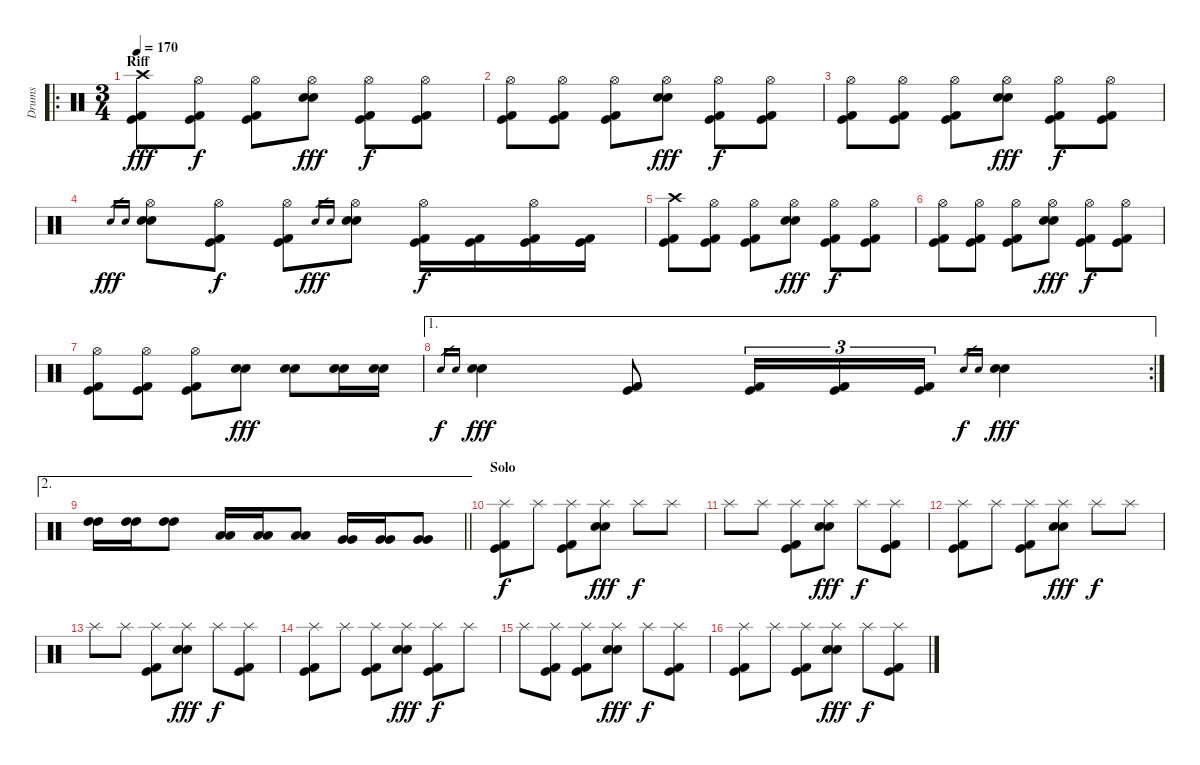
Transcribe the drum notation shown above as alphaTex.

\track ("Drums" "Drums") {instrument percussion}
\staff {score}
\articulation defaults
\ro
\ts (3 4)
\section ("" "Riff")
\tempo 170
\clef neutral
\ks c
("Crash high (hit)" "Kick (hit)" "Kick (hit) 2").8{dy fff} ("Hi-Hat (open)" "Kick (hit)" "Kick (hit) 2").8{dy f} ("Hi-Hat (open)" "Kick (hit)" "Kick (hit) 2").8 ("Hi-Hat (open)" "Electric Snare (hit)" "Electric Snare (hit)").8{dy fff} ("Hi-Hat (open)" "Kick (hit)" "Kick (hit) 2").8{dy f} ("Hi-Hat (open)" "Kick (hit)" "Kick (hit) 2").8 |
("Hi-Hat (open)" "Kick (hit)" "Kick (hit) 2").8 ("Hi-Hat (open)" "Kick (hit)" "Kick (hit) 2").8 ("Hi-Hat (open)" "Kick (hit)" "Kick (hit) 2").8 ("Hi-Hat (open)" "Electric Snare (hit)" "Electric Snare (hit)").8{dy fff} ("Hi-Hat (open)" "Kick (hit)" "Kick (hit) 2").8{dy f} ("Hi-Hat (open)" "Kick (hit)" "Kick (hit) 2").8 |
("Hi-Hat (open)" "Kick (hit)" "Kick (hit) 2").8 ("Hi-Hat (open)" "Kick (hit)" "Kick (hit) 2").8 ("Hi-Hat (open)" "Kick (hit)" "Kick (hit) 2").8 ("Hi-Hat (open)" "Electric Snare (hit)" "Electric Snare (hit)").8{dy fff} ("Hi-Hat (open)" "Kick (hit)" "Kick (hit) 2").8{dy f} ("Hi-Hat (open)" "Kick (hit)" "Kick (hit) 2").8 |
"Electric Snare (hit)".16{gr dy fff} "Electric Snare (hit)".16{gr} ("Hi-Hat (open)" "Electric Snare (hit)" "Electric Snare (hit)").8 ("Hi-Hat (open)" "Kick (hit)" "Kick (hit) 2").8{dy f} ("Hi-Hat (open)" "Kick (hit)" "Kick (hit) 2").8 "Electric Snare (hit)".16{gr dy fff} "Electric Snare (hit)".16{gr} ("Hi-Hat (open)" "Electric Snare (hit)" "Electric Snare (hit)").8 ("Hi-Hat (open)" "Kick (hit)" "Kick (hit) 2").16{dy f} ("Kick (hit)" "Kick (hit) 2").16 ("Hi-Hat (open)" "Kick (hit)" "Kick (hit) 2").16 ("Kick (hit)" "Kick (hit) 2").16 |
("Crash high (hit)" "Kick (hit)" "Kick (hit) 2").8 ("Hi-Hat (open)" "Kick (hit)" "Kick (hit) 2").8 ("Hi-Hat (open)" "Kick (hit)" "Kick (hit) 2").8 ("Hi-Hat (open)" "Electric Snare (hit)" "Electric Snare (hit)").8{dy fff} ("Hi-Hat (open)" "Kick (hit)" "Kick (hit) 2").8{dy f} ("Hi-Hat (open)" "Kick (hit)" "Kick (hit) 2").8 |
("Hi-Hat (open)" "Kick (hit)" "Kick (hit) 2").8 ("Hi-Hat (open)" "Kick (hit)" "Kick (hit) 2").8 ("Hi-Hat (open)" "Kick (hit)" "Kick (hit) 2").8 ("Hi-Hat (open)" "Electric Snare (hit)" "Electric Snare (hit)").8{dy fff} ("Hi-Hat (open)" "Kick (hit)" "Kick (hit) 2").8{dy f} ("Hi-Hat (open)" "Kick (hit)" "Kick (hit) 2").8 |
("Hi-Hat (open)" "Kick (hit)" "Kick (hit) 2").8 ("Hi-Hat (open)" "Kick (hit)" "Kick (hit) 2").8 ("Hi-Hat (open)" "Kick (hit)" "Kick (hit) 2").8 ("Electric Snare (hit)" "Electric Snare (hit)").8{dy fff} ("Electric Snare (hit)" "Electric Snare (hit)").8 ("Electric Snare (hit)" "Electric Snare (hit)").16 ("Electric Snare (hit)" "Electric Snare (hit)").16 |
\ae 1
\rc 2 "Electric Snare (hit)".16{gr dy f} "Electric Snare (hit)".16{gr}
("Electric Snare (hit)" "Electric Snare (hit)").4{dy fff} ("Kick (hit)" "Kick (hit) 2").8 ("Kick (hit)" "Kick (hit) 2").16{tu (3 2)} ("Kick (hit)" "Kick (hit) 2").16{tu (3 2)} ("Kick (hit)" "Kick (hit) 2").16{tu (3 2)} "Electric Snare (hit)".16{gr dy f} "Electric Snare (hit)".16{gr} ("Electric Snare (hit)" "Electric Snare (hit)").4{dy fff} |
\ae 2
\barLineRight lightlight
("High Tom (hit)" "High Tom (hit)").16 ("High Tom (hit)" "High Tom (hit)").16 ("High Tom (hit)" "High Tom (hit)").8 ("Low Tom (hit)" "Low Tom (hit)").16 ("Low Tom (hit)" "Low Tom (hit)").16 ("Low Tom (hit)" "Low Tom (hit)").8 ("Very Low Tom (hit)" "Very Low Tom (hit)").16 ("Very Low Tom (hit)" "Very Low Tom (hit)").16 ("Very Low Tom (hit)" "Very Low Tom (hit)").8 |
\section ("" "Solo")
("Splash (hit)" "Kick (hit)" "Kick (hit) 2").8{dy f} "Splash (hit)".8 ("Splash (hit)" "Kick (hit)" "Kick (hit) 2").8 ("Splash (hit)" "Electric Snare (hit)" "Electric Snare (hit)").8{dy fff} "Splash (hit)".8{dy f} "Splash (hit)".8 |
"Splash (hit)".8 "Splash (hit)".8 ("Splash (hit)" "Kick (hit)" "Kick (hit) 2").8 ("Splash (hit)" "Electric Snare (hit)" "Electric Snare (hit)").8{dy fff} "Splash (hit)".8{dy f} ("Splash (hit)" "Kick (hit)" "Kick (hit) 2").8 |
("Splash (hit)" "Kick (hit)" "Kick (hit) 2").8 "Splash (hit)".8 ("Splash (hit)" "Kick (hit)" "Kick (hit) 2").8 ("Splash (hit)" "Electric Snare (hit)" "Electric Snare (hit)").8{dy fff} "Splash (hit)".8{dy f} "Splash (hit)".8 |
"Splash (hit)".8 "Splash (hit)".8 ("Splash (hit)" "Kick (hit)" "Kick (hit) 2").8 ("Splash (hit)" "Electric Snare (hit)" "Electric Snare (hit)").8{dy fff} "Splash (hit)".8{dy f} ("Splash (hit)" "Kick (hit)" "Kick (hit) 2").8 |
("Splash (hit)" "Kick (hit)" "Kick (hit) 2").8 "Splash (hit)".8 ("Splash (hit)" "Kick (hit)" "Kick (hit) 2").8 ("Splash (hit)" "Electric Snare (hit)" "Electric Snare (hit)").8{dy fff} ("Splash (hit)" "Kick (hit)" "Kick (hit) 2").8{dy f} "Splash (hit)".8 |
"Splash (hit)".8 ("Splash (hit)" "Kick (hit)" "Kick (hit) 2").8 ("Splash (hit)" "Kick (hit)" "Kick (hit) 2").8 ("Splash (hit)" "Electric Snare (hit)" "Electric Snare (hit)").8{dy fff} "Splash (hit)".8{dy f} ("Splash (hit)" "Kick (hit)" "Kick (hit) 2").8 |
("Splash (hit)" "Kick (hit)" "Kick (hit) 2").8 "Splash (hit)".8 ("Splash (hit)" "Kick (hit)" "Kick (hit) 2").8 ("Splash (hit)" "Electric Snare (hit)" "Electric Snare (hit)").8{dy fff} "Splash (hit)".8{dy f} ("Splash (hit)" "Kick (hit)" "Kick (hit) 2").8
